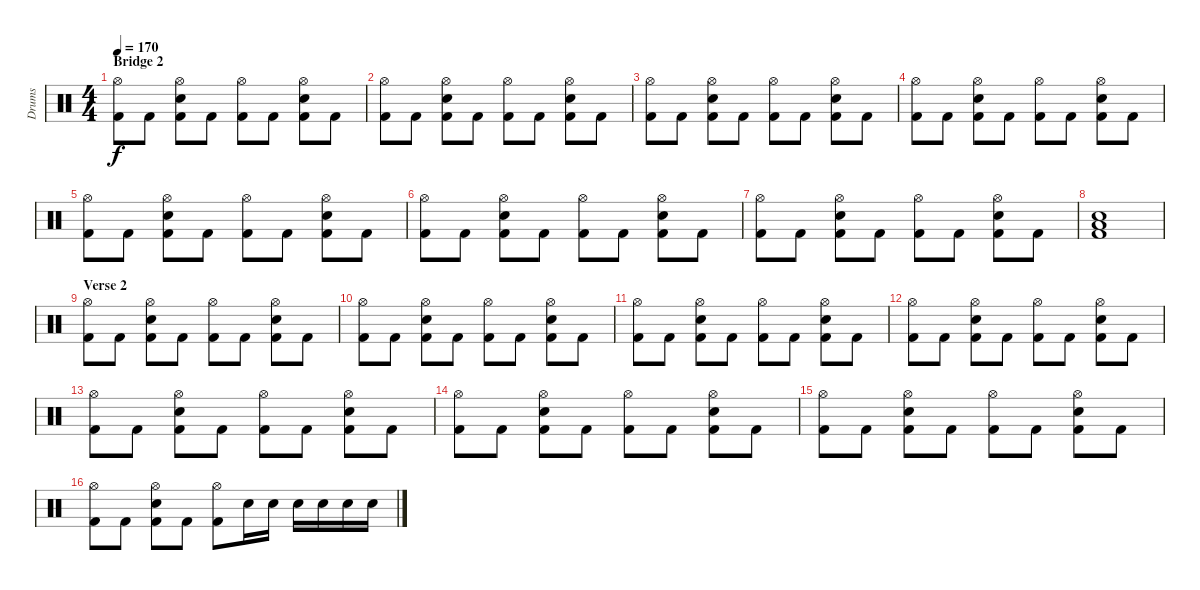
\track ("Drums" "Drums") {instrument percussion}
\staff {score}
\articulation defaults
\ts (4 4)
\section ("" "Bridge 2")
\tempo 170
\clef neutral
\ks c
("Hi-Hat (open)" "Kick (hit) 2").8{dy f} "Kick (hit) 2".8 ("Hi-Hat (open)" "Snare (hit) 2" "Kick (hit) 2").8 "Kick (hit) 2".8 ("Hi-Hat (open)" "Kick (hit) 2").8 "Kick (hit) 2".8 ("Hi-Hat (open)" "Snare (hit) 2" "Kick (hit) 2").8 "Kick (hit) 2".8 |
("Hi-Hat (open)" "Kick (hit) 2").8 "Kick (hit) 2".8 ("Hi-Hat (open)" "Snare (hit) 2" "Kick (hit) 2").8 "Kick (hit) 2".8 ("Hi-Hat (open)" "Kick (hit) 2").8 "Kick (hit) 2".8 ("Hi-Hat (open)" "Snare (hit) 2" "Kick (hit) 2").8 "Kick (hit) 2".8 |
("Hi-Hat (open)" "Kick (hit) 2").8 "Kick (hit) 2".8 ("Hi-Hat (open)" "Snare (hit) 2" "Kick (hit) 2").8 "Kick (hit) 2".8 ("Hi-Hat (open)" "Kick (hit) 2").8 "Kick (hit) 2".8 ("Hi-Hat (open)" "Snare (hit) 2" "Kick (hit) 2").8 "Kick (hit) 2".8 |
("Hi-Hat (open)" "Kick (hit) 2").8 "Kick (hit) 2".8 ("Hi-Hat (open)" "Snare (hit) 2" "Kick (hit) 2").8 "Kick (hit) 2".8 ("Hi-Hat (open)" "Kick (hit) 2").8 "Kick (hit) 2".8 ("Hi-Hat (open)" "Snare (hit) 2" "Kick (hit) 2").8 "Kick (hit) 2".8 |
("Hi-Hat (open)" "Kick (hit) 2").8 "Kick (hit) 2".8 ("Hi-Hat (open)" "Snare (hit) 2" "Kick (hit) 2").8 "Kick (hit) 2".8 ("Hi-Hat (open)" "Kick (hit) 2").8 "Kick (hit) 2".8 ("Hi-Hat (open)" "Snare (hit) 2" "Kick (hit) 2").8 "Kick (hit) 2".8 |
("Hi-Hat (open)" "Kick (hit) 2").8 "Kick (hit) 2".8 ("Hi-Hat (open)" "Snare (hit) 2" "Kick (hit) 2").8 "Kick (hit) 2".8 ("Hi-Hat (open)" "Kick (hit) 2").8 "Kick (hit) 2".8 ("Hi-Hat (open)" "Snare (hit) 2" "Kick (hit) 2").8 "Kick (hit) 2".8 |
("Hi-Hat (open)" "Kick (hit) 2").8 "Kick (hit) 2".8 ("Hi-Hat (open)" "Snare (hit) 2" "Kick (hit) 2").8 "Kick (hit) 2".8 ("Hi-Hat (open)" "Kick (hit) 2").8 "Kick (hit) 2".8 ("Hi-Hat (open)" "Snare (hit) 2" "Kick (hit) 2").8 "Kick (hit) 2".8 |
("Low Floor Tom (hit)" "Snare (hit) 2" "Kick (hit) 2").1 |
\section ("" "Verse 2")
("Hi-Hat (open)" "Kick (hit) 2").8 "Kick (hit) 2".8 ("Hi-Hat (open)" "Snare (hit) 2" "Kick (hit) 2").8 "Kick (hit) 2".8 ("Hi-Hat (open)" "Kick (hit) 2").8 "Kick (hit) 2".8 ("Hi-Hat (open)" "Snare (hit) 2" "Kick (hit) 2").8 "Kick (hit) 2".8 |
("Hi-Hat (open)" "Kick (hit) 2").8 "Kick (hit) 2".8 ("Hi-Hat (open)" "Snare (hit) 2" "Kick (hit) 2").8 "Kick (hit) 2".8 ("Hi-Hat (open)" "Kick (hit) 2").8 "Kick (hit) 2".8 ("Hi-Hat (open)" "Snare (hit) 2" "Kick (hit) 2").8 "Kick (hit) 2".8 |
("Hi-Hat (open)" "Kick (hit) 2").8 "Kick (hit) 2".8 ("Hi-Hat (open)" "Snare (hit) 2" "Kick (hit) 2").8 "Kick (hit) 2".8 ("Hi-Hat (open)" "Kick (hit) 2").8 "Kick (hit) 2".8 ("Hi-Hat (open)" "Snare (hit) 2" "Kick (hit) 2").8 "Kick (hit) 2".8 |
("Hi-Hat (open)" "Kick (hit) 2").8 "Kick (hit) 2".8 ("Hi-Hat (open)" "Snare (hit) 2" "Kick (hit) 2").8 "Kick (hit) 2".8 ("Hi-Hat (open)" "Kick (hit) 2").8 "Kick (hit) 2".8 ("Hi-Hat (open)" "Snare (hit) 2" "Kick (hit) 2").8 "Kick (hit) 2".8 |
("Hi-Hat (open)" "Kick (hit) 2").8 "Kick (hit) 2".8 ("Hi-Hat (open)" "Snare (hit) 2" "Kick (hit) 2").8 "Kick (hit) 2".8 ("Hi-Hat (open)" "Kick (hit) 2").8 "Kick (hit) 2".8 ("Hi-Hat (open)" "Snare (hit) 2" "Kick (hit) 2").8 "Kick (hit) 2".8 |
("Hi-Hat (open)" "Kick (hit) 2").8 "Kick (hit) 2".8 ("Hi-Hat (open)" "Snare (hit) 2" "Kick (hit) 2").8 "Kick (hit) 2".8 ("Hi-Hat (open)" "Kick (hit) 2").8 "Kick (hit) 2".8 ("Hi-Hat (open)" "Snare (hit) 2" "Kick (hit) 2").8 "Kick (hit) 2".8 |
("Hi-Hat (open)" "Kick (hit) 2").8 "Kick (hit) 2".8 ("Hi-Hat (open)" "Snare (hit) 2" "Kick (hit) 2").8 "Kick (hit) 2".8 ("Hi-Hat (open)" "Kick (hit) 2").8 "Kick (hit) 2".8 ("Hi-Hat (open)" "Snare (hit) 2" "Kick (hit) 2").8 "Kick (hit) 2".8 |
("Hi-Hat (open)" "Kick (hit) 2").8 "Kick (hit) 2".8 ("Hi-Hat (open)" "Snare (hit) 2" "Kick (hit) 2").8 "Kick (hit) 2".8 ("Hi-Hat (open)" "Kick (hit) 2").8 "Snare (hit) 2".16 "Snare (hit) 2".16 "Snare (hit) 2".16 "Snare (hit) 2".16 "Snare (hit) 2".16 "Snare (hit) 2".16
